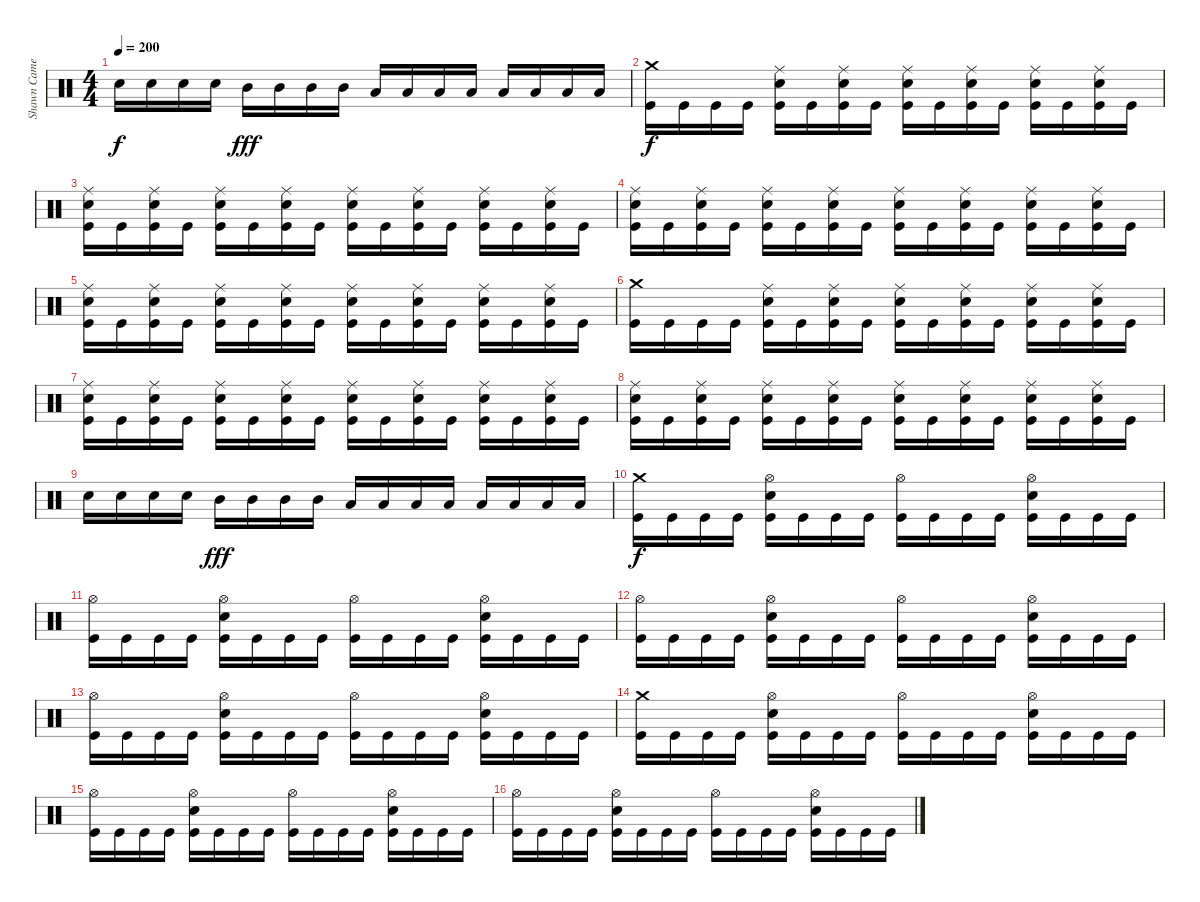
\track ("Shawn Cameron" "Shawn Came") {instrument percussion}
\staff {score}
\articulation defaults
\ts (4 4)
\tempo 200
\clef neutral
\ks c "Snare (hit) 2".16{dy f} "Snare (hit) 2".16 "Snare (hit) 2".16 "Snare (hit) 2".16 "Mid Tom (hit)".16{dy fff} "Mid Tom (hit)".16 "Mid Tom (hit)".16 "Mid Tom (hit)".16 "Low Tom (hit)".16 "Low Tom (hit)".16 "Low Tom (hit)".16 "Low Tom (hit)".16 "Low Floor Tom (hit)".16 "Low Floor Tom (hit)".16 "Low Floor Tom (hit)".16 "Low Floor Tom (hit)".16
|
("Crash medium (hit)" "Kick (hit)").16{dy f} "Kick (hit)".16 "Kick (hit)".16 "Kick (hit)".16 ("Ride (middle)" "Snare (hit) 2" "Kick (hit)").16 "Kick (hit)".16 ("Ride (middle)" "Snare (hit) 2" "Kick (hit)").16 "Kick (hit)".16 ("Ride (middle)" "Snare (hit) 2" "Kick (hit)").16 "Kick (hit)".16 ("Ride (middle)" "Snare (hit) 2" "Kick (hit)").16 "Kick (hit)".16 ("Ride (middle)" "Snare (hit) 2" "Kick (hit)").16 "Kick (hit)".16 ("Ride (middle)" "Snare (hit) 2" "Kick (hit)").16 "Kick (hit)".16 |
("Ride (middle)" "Snare (hit) 2" "Kick (hit)").16 "Kick (hit)".16 ("Ride (middle)" "Snare (hit) 2" "Kick (hit)").16 "Kick (hit)".16 ("Ride (middle)" "Snare (hit) 2" "Kick (hit)").16 "Kick (hit)".16 ("Ride (middle)" "Snare (hit) 2" "Kick (hit)").16 "Kick (hit)".16 ("Ride (middle)" "Snare (hit) 2" "Kick (hit)").16 "Kick (hit)".16 ("Ride (middle)" "Snare (hit) 2" "Kick (hit)").16 "Kick (hit)".16 ("Ride (middle)" "Snare (hit) 2" "Kick (hit)").16 "Kick (hit)".16 ("Ride (middle)" "Snare (hit) 2" "Kick (hit)").16 "Kick (hit)".16 |
("Ride (middle)" "Snare (hit) 2" "Kick (hit)").16 "Kick (hit)".16 ("Ride (middle)" "Snare (hit) 2" "Kick (hit)").16 "Kick (hit)".16 ("Ride (middle)" "Snare (hit) 2" "Kick (hit)").16 "Kick (hit)".16 ("Ride (middle)" "Snare (hit) 2" "Kick (hit)").16 "Kick (hit)".16 ("Ride (middle)" "Snare (hit) 2" "Kick (hit)").16 "Kick (hit)".16 ("Ride (middle)" "Snare (hit) 2" "Kick (hit)").16 "Kick (hit)".16 ("Ride (middle)" "Snare (hit) 2" "Kick (hit)").16 "Kick (hit)".16 ("Ride (middle)" "Snare (hit) 2" "Kick (hit)").16 "Kick (hit)".16 |
("Ride (middle)" "Snare (hit) 2" "Kick (hit)").16 "Kick (hit)".16 ("Ride (middle)" "Snare (hit) 2" "Kick (hit)").16 "Kick (hit)".16 ("Ride (middle)" "Snare (hit) 2" "Kick (hit)").16 "Kick (hit)".16 ("Ride (middle)" "Snare (hit) 2" "Kick (hit)").16 "Kick (hit)".16 ("Ride (middle)" "Snare (hit) 2" "Kick (hit)").16 "Kick (hit)".16 ("Ride (middle)" "Snare (hit) 2" "Kick (hit)").16 "Kick (hit)".16 ("Ride (middle)" "Snare (hit) 2" "Kick (hit)").16 "Kick (hit)".16 ("Ride (middle)" "Snare (hit) 2" "Kick (hit)").16 "Kick (hit)".16 |
("Crash medium (hit)" "Kick (hit)").16 "Kick (hit)".16 "Kick (hit)".16 "Kick (hit)".16 ("Ride (middle)" "Snare (hit) 2" "Kick (hit)").16 "Kick (hit)".16 ("Ride (middle)" "Snare (hit) 2" "Kick (hit)").16 "Kick (hit)".16 ("Ride (middle)" "Snare (hit) 2" "Kick (hit)").16 "Kick (hit)".16 ("Ride (middle)" "Snare (hit) 2" "Kick (hit)").16 "Kick (hit)".16 ("Ride (middle)" "Snare (hit) 2" "Kick (hit)").16 "Kick (hit)".16 ("Ride (middle)" "Snare (hit) 2" "Kick (hit)").16 "Kick (hit)".16 |
("Ride (middle)" "Snare (hit) 2" "Kick (hit)").16 "Kick (hit)".16 ("Ride (middle)" "Snare (hit) 2" "Kick (hit)").16 "Kick (hit)".16 ("Ride (middle)" "Snare (hit) 2" "Kick (hit)").16 "Kick (hit)".16 ("Ride (middle)" "Snare (hit) 2" "Kick (hit)").16 "Kick (hit)".16 ("Ride (middle)" "Snare (hit) 2" "Kick (hit)").16 "Kick (hit)".16 ("Ride (middle)" "Snare (hit) 2" "Kick (hit)").16 "Kick (hit)".16 ("Ride (middle)" "Snare (hit) 2" "Kick (hit)").16 "Kick (hit)".16 ("Ride (middle)" "Snare (hit) 2" "Kick (hit)").16 "Kick (hit)".16 |
("Ride (middle)" "Snare (hit) 2" "Kick (hit)").16 "Kick (hit)".16 ("Ride (middle)" "Snare (hit) 2" "Kick (hit)").16 "Kick (hit)".16 ("Ride (middle)" "Snare (hit) 2" "Kick (hit)").16 "Kick (hit)".16 ("Ride (middle)" "Snare (hit) 2" "Kick (hit)").16 "Kick (hit)".16 ("Ride (middle)" "Snare (hit) 2" "Kick (hit)").16 "Kick (hit)".16 ("Ride (middle)" "Snare (hit) 2" "Kick (hit)").16 "Kick (hit)".16 ("Ride (middle)" "Snare (hit) 2" "Kick (hit)").16 "Kick (hit)".16 ("Ride (middle)" "Snare (hit) 2" "Kick (hit)").16 "Kick (hit)".16 |
"Snare (hit) 2".16 "Snare (hit) 2".16 "Snare (hit) 2".16 "Snare (hit) 2".16 "Mid Tom (hit)".16{dy fff} "Mid Tom (hit)".16 "Mid Tom (hit)".16 "Mid Tom (hit)".16 "Low Tom (hit)".16 "Low Tom (hit)".16 "Low Tom (hit)".16 "Low Tom (hit)".16 "Low Floor Tom (hit)".16 "Low Floor Tom (hit)".16 "Low Floor Tom (hit)".16 "Low Floor Tom (hit)".16 |
("Crash medium (hit)" "Kick (hit)").16{dy f} "Kick (hit)".16 "Kick (hit)".16 "Kick (hit)".16 ("Hi-Hat (open)" "Snare (hit) 2" "Kick (hit)").16 "Kick (hit)".16 "Kick (hit)".16 "Kick (hit)".16 ("Hi-Hat (open)" "Kick (hit)").16 "Kick (hit)".16 "Kick (hit)".16 "Kick (hit)".16 ("Hi-Hat (open)" "Snare (hit) 2" "Kick (hit)").16 "Kick (hit)".16 "Kick (hit)".16 "Kick (hit)".16 |
("Hi-Hat (open)" "Kick (hit)").16 "Kick (hit)".16 "Kick (hit)".16 "Kick (hit)".16 ("Hi-Hat (open)" "Snare (hit) 2" "Kick (hit)").16 "Kick (hit)".16 "Kick (hit)".16 "Kick (hit)".16 ("Hi-Hat (open)" "Kick (hit)").16 "Kick (hit)".16 "Kick (hit)".16 "Kick (hit)".16 ("Hi-Hat (open)" "Snare (hit) 2" "Kick (hit)").16 "Kick (hit)".16 "Kick (hit)".16 "Kick (hit)".16 |
("Hi-Hat (open)" "Kick (hit)").16 "Kick (hit)".16 "Kick (hit)".16 "Kick (hit)".16 ("Hi-Hat (open)" "Snare (hit) 2" "Kick (hit)").16 "Kick (hit)".16 "Kick (hit)".16 "Kick (hit)".16 ("Hi-Hat (open)" "Kick (hit)").16 "Kick (hit)".16 "Kick (hit)".16 "Kick (hit)".16 ("Hi-Hat (open)" "Snare (hit) 2" "Kick (hit)").16 "Kick (hit)".16 "Kick (hit)".16 "Kick (hit)".16 |
("Hi-Hat (open)" "Kick (hit)").16 "Kick (hit)".16 "Kick (hit)".16 "Kick (hit)".16 ("Hi-Hat (open)" "Snare (hit) 2" "Kick (hit)").16 "Kick (hit)".16 "Kick (hit)".16 "Kick (hit)".16 ("Hi-Hat (open)" "Kick (hit)").16 "Kick (hit)".16 "Kick (hit)".16 "Kick (hit)".16 ("Hi-Hat (open)" "Snare (hit) 2" "Kick (hit)").16 "Kick (hit)".16 "Kick (hit)".16 "Kick (hit)".16 |
("Crash medium (hit)" "Kick (hit)").16 "Kick (hit)".16 "Kick (hit)".16 "Kick (hit)".16 ("Hi-Hat (open)" "Snare (hit) 2" "Kick (hit)").16 "Kick (hit)".16 "Kick (hit)".16 "Kick (hit)".16 ("Hi-Hat (open)" "Kick (hit)").16 "Kick (hit)".16 "Kick (hit)".16 "Kick (hit)".16 ("Hi-Hat (open)" "Snare (hit) 2" "Kick (hit)").16 "Kick (hit)".16 "Kick (hit)".16 "Kick (hit)".16 |
("Hi-Hat (open)" "Kick (hit)").16 "Kick (hit)".16 "Kick (hit)".16 "Kick (hit)".16 ("Hi-Hat (open)" "Snare (hit) 2" "Kick (hit)").16 "Kick (hit)".16 "Kick (hit)".16 "Kick (hit)".16 ("Hi-Hat (open)" "Kick (hit)").16 "Kick (hit)".16 "Kick (hit)".16 "Kick (hit)".16 ("Hi-Hat (open)" "Snare (hit) 2" "Kick (hit)").16 "Kick (hit)".16 "Kick (hit)".16 "Kick (hit)".16 |
("Hi-Hat (open)" "Kick (hit)").16 "Kick (hit)".16 "Kick (hit)".16 "Kick (hit)".16 ("Hi-Hat (open)" "Snare (hit) 2" "Kick (hit)").16 "Kick (hit)".16 "Kick (hit)".16 "Kick (hit)".16 ("Hi-Hat (open)" "Kick (hit)").16 "Kick (hit)".16 "Kick (hit)".16 "Kick (hit)".16 ("Hi-Hat (open)" "Snare (hit) 2" "Kick (hit)").16 "Kick (hit)".16 "Kick (hit)".16 "Kick (hit)".16
